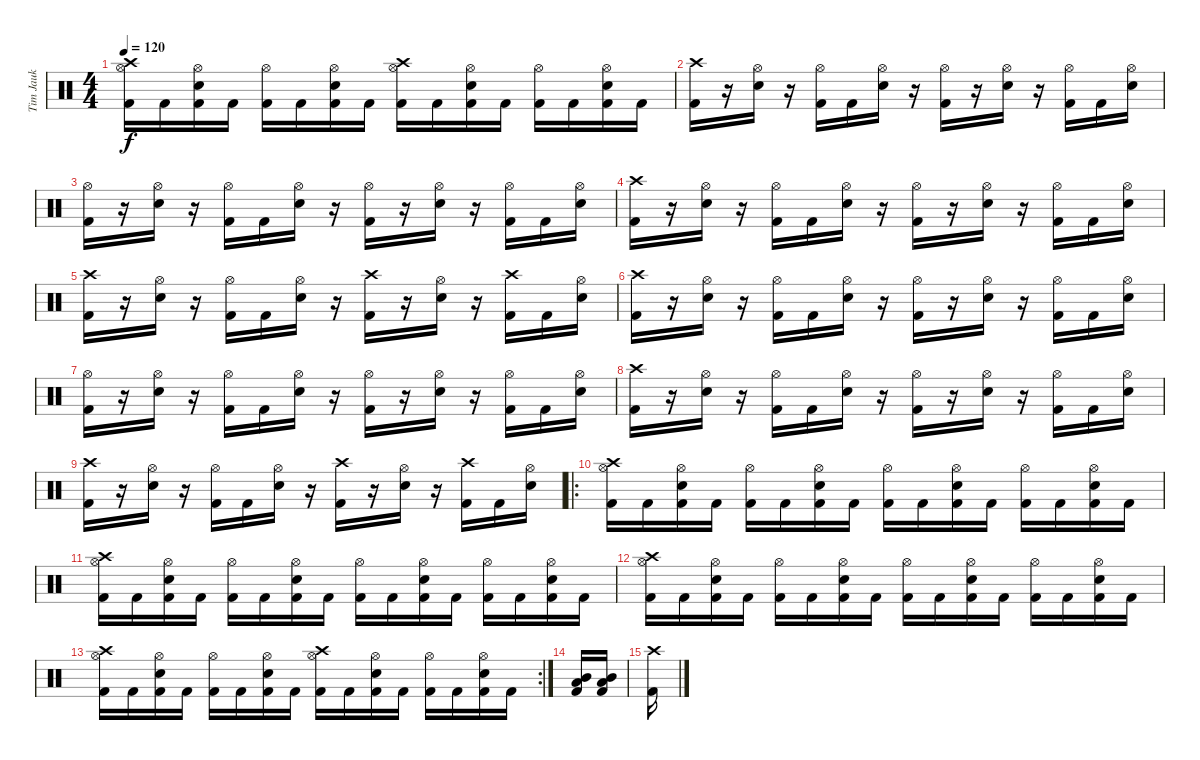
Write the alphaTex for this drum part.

\track ("Tim Jauk" "Tim Jauk") {instrument percussion}
\staff {score}
\articulation defaults
\ts (4 4)
\tempo 120
\clef neutral
\ks c
("Crash high (hit)" "Hi-Hat (open)" "Kick (hit) 2").16{dy f} "Kick (hit) 2".16 ("Hi-Hat (open)" "Snare (hit) 2" "Kick (hit) 2").16 "Kick (hit) 2".16 ("Hi-Hat (open)" "Kick (hit) 2").16 "Kick (hit) 2".16 ("Hi-Hat (open)" "Snare (hit) 2" "Kick (hit) 2").16 "Kick (hit) 2".16 ("Crash high (hit)" "Hi-Hat (open)" "Kick (hit) 2").16 "Kick (hit) 2".16 ("Hi-Hat (open)" "Snare (hit) 2" "Kick (hit) 2").16 "Kick (hit) 2".16 ("Hi-Hat (open)" "Kick (hit) 2").16 "Kick (hit) 2".16 ("Hi-Hat (open)" "Snare (hit) 2" "Kick (hit) 2").16 "Kick (hit) 2".16 |
("Crash high (hit)" "Kick (hit) 2").16 r.16 ("Hi-Hat (open)" "Snare (hit) 2").16 r.16 ("Hi-Hat (open)" "Kick (hit) 2").16 "Kick (hit) 2".16 ("Hi-Hat (open)" "Snare (hit) 2").16 r.16 ("Hi-Hat (open)" "Kick (hit) 2").16 r.16 ("Hi-Hat (open)" "Snare (hit) 2").16 r.16 ("Hi-Hat (open)" "Kick (hit) 2").16 "Kick (hit) 2".16 ("Hi-Hat (open)" "Snare (hit) 2").16 |
("Hi-Hat (open)" "Kick (hit) 2").16 r.16 ("Hi-Hat (open)" "Snare (hit) 2").16 r.16 ("Hi-Hat (open)" "Kick (hit) 2").16 "Kick (hit) 2".16 ("Hi-Hat (open)" "Snare (hit) 2").16 r.16 ("Hi-Hat (open)" "Kick (hit) 2").16 r.16 ("Hi-Hat (open)" "Snare (hit) 2").16 r.16 ("Hi-Hat (open)" "Kick (hit) 2").16 "Kick (hit) 2".16 ("Hi-Hat (open)" "Snare (hit) 2").16 |
("Crash high (hit)" "Kick (hit) 2").16 r.16 ("Hi-Hat (open)" "Snare (hit) 2").16 r.16 ("Hi-Hat (open)" "Kick (hit) 2").16 "Kick (hit) 2".16 ("Hi-Hat (open)" "Snare (hit) 2").16 r.16 ("Hi-Hat (open)" "Kick (hit) 2").16 r.16 ("Hi-Hat (open)" "Snare (hit) 2").16 r.16 ("Hi-Hat (open)" "Kick (hit) 2").16 "Kick (hit) 2".16 ("Hi-Hat (open)" "Snare (hit) 2").16 |
("Crash high (hit)" "Kick (hit) 2").16 r.16 ("Hi-Hat (open)" "Snare (hit) 2").16 r.16 ("Hi-Hat (open)" "Kick (hit) 2").16 "Kick (hit) 2".16 ("Hi-Hat (open)" "Snare (hit) 2").16 r.16 ("Crash high (hit)" "Kick (hit) 2").16 r.16 ("Hi-Hat (open)" "Snare (hit) 2").16 r.16 ("Crash high (hit)" "Kick (hit) 2").16 "Kick (hit) 2".16 ("Hi-Hat (open)" "Snare (hit) 2").16 |
("Crash high (hit)" "Kick (hit) 2").16 r.16 ("Hi-Hat (open)" "Snare (hit) 2").16 r.16 ("Hi-Hat (open)" "Kick (hit) 2").16 "Kick (hit) 2".16 ("Hi-Hat (open)" "Snare (hit) 2").16 r.16 ("Hi-Hat (open)" "Kick (hit) 2").16 r.16 ("Hi-Hat (open)" "Snare (hit) 2").16 r.16 ("Hi-Hat (open)" "Kick (hit) 2").16 "Kick (hit) 2".16 ("Hi-Hat (open)" "Snare (hit) 2").16 |
("Hi-Hat (open)" "Kick (hit) 2").16 r.16 ("Hi-Hat (open)" "Snare (hit) 2").16 r.16 ("Hi-Hat (open)" "Kick (hit) 2").16 "Kick (hit) 2".16 ("Hi-Hat (open)" "Snare (hit) 2").16 r.16 ("Hi-Hat (open)" "Kick (hit) 2").16 r.16 ("Hi-Hat (open)" "Snare (hit) 2").16 r.16 ("Hi-Hat (open)" "Kick (hit) 2").16 "Kick (hit) 2".16 ("Hi-Hat (open)" "Snare (hit) 2").16 |
("Crash high (hit)" "Kick (hit) 2").16 r.16 ("Hi-Hat (open)" "Snare (hit) 2").16 r.16 ("Hi-Hat (open)" "Kick (hit) 2").16 "Kick (hit) 2".16 ("Hi-Hat (open)" "Snare (hit) 2").16 r.16 ("Hi-Hat (open)" "Kick (hit) 2").16 r.16 ("Hi-Hat (open)" "Snare (hit) 2").16 r.16 ("Hi-Hat (open)" "Kick (hit) 2").16 "Kick (hit) 2".16 ("Hi-Hat (open)" "Snare (hit) 2").16 |
("Crash high (hit)" "Kick (hit) 2").16 r.16 ("Hi-Hat (open)" "Snare (hit) 2").16 r.16 ("Hi-Hat (open)" "Kick (hit) 2").16 "Kick (hit) 2".16 ("Hi-Hat (open)" "Snare (hit) 2").16 r.16 ("Crash high (hit)" "Kick (hit) 2").16 r.16 ("Hi-Hat (open)" "Snare (hit) 2").16 r.16 ("Crash high (hit)" "Kick (hit) 2").16 "Kick (hit) 2".16 ("Hi-Hat (open)" "Snare (hit) 2").16 |
\ro
("Crash high (hit)" "Hi-Hat (open)" "Kick (hit) 2").16 "Kick (hit) 2".16 ("Hi-Hat (open)" "Snare (hit) 2" "Kick (hit) 2").16 "Kick (hit) 2".16 ("Hi-Hat (open)" "Kick (hit) 2").16 "Kick (hit) 2".16 ("Hi-Hat (open)" "Snare (hit) 2" "Kick (hit) 2").16 "Kick (hit) 2".16 ("Hi-Hat (open)" "Kick (hit) 2").16 "Kick (hit) 2".16 ("Hi-Hat (open)" "Snare (hit) 2" "Kick (hit) 2").16 "Kick (hit) 2".16 ("Hi-Hat (open)" "Kick (hit) 2").16 "Kick (hit) 2".16 ("Hi-Hat (open)" "Snare (hit) 2" "Kick (hit) 2").16 "Kick (hit) 2".16 |
("Crash high (hit)" "Hi-Hat (open)" "Kick (hit) 2").16 "Kick (hit) 2".16 ("Hi-Hat (open)" "Snare (hit) 2" "Kick (hit) 2").16 "Kick (hit) 2".16 ("Hi-Hat (open)" "Kick (hit) 2").16 "Kick (hit) 2".16 ("Hi-Hat (open)" "Snare (hit) 2" "Kick (hit) 2").16 "Kick (hit) 2".16 ("Hi-Hat (open)" "Kick (hit) 2").16 "Kick (hit) 2".16 ("Hi-Hat (open)" "Snare (hit) 2" "Kick (hit) 2").16 "Kick (hit) 2".16 ("Hi-Hat (open)" "Kick (hit) 2").16 "Kick (hit) 2".16 ("Hi-Hat (open)" "Snare (hit) 2" "Kick (hit) 2").16 "Kick (hit) 2".16 |
("Crash high (hit)" "Hi-Hat (open)" "Kick (hit) 2").16 "Kick (hit) 2".16 ("Hi-Hat (open)" "Snare (hit) 2" "Kick (hit) 2").16 "Kick (hit) 2".16 ("Hi-Hat (open)" "Kick (hit) 2").16 "Kick (hit) 2".16 ("Hi-Hat (open)" "Snare (hit) 2" "Kick (hit) 2").16 "Kick (hit) 2".16 ("Hi-Hat (open)" "Kick (hit) 2").16 "Kick (hit) 2".16 ("Hi-Hat (open)" "Snare (hit) 2" "Kick (hit) 2").16 "Kick (hit) 2".16 ("Hi-Hat (open)" "Kick (hit) 2").16 "Kick (hit) 2".16 ("Hi-Hat (open)" "Snare (hit) 2" "Kick (hit) 2").16 "Kick (hit) 2".16 |
\rc 2
("Crash high (hit)" "Hi-Hat (open)" "Kick (hit) 2").16 "Kick (hit) 2".16 ("Hi-Hat (open)" "Snare (hit) 2" "Kick (hit) 2").16 "Kick (hit) 2".16 ("Hi-Hat (open)" "Kick (hit) 2").16 "Kick (hit) 2".16 ("Hi-Hat (open)" "Snare (hit) 2" "Kick (hit) 2").16 "Kick (hit) 2".16 ("Crash high (hit)" "Hi-Hat (open)" "Kick (hit) 2").16 "Kick (hit) 2".16 ("Hi-Hat (open)" "Snare (hit) 2" "Kick (hit) 2").16 "Kick (hit) 2".16 ("Hi-Hat (open)" "Kick (hit) 2").16 "Kick (hit) 2".16 ("Hi-Hat (open)" "Snare (hit) 2" "Kick (hit) 2").16 "Kick (hit) 2".16 |
("Mid Tom (hit)" "Low Tom (hit)" "Kick (hit) 2").16 ("Mid Tom (hit)" "Low Tom (hit)" "Kick (hit) 2").16 |
("Crash high (hit)" "Kick (hit) 2").16
